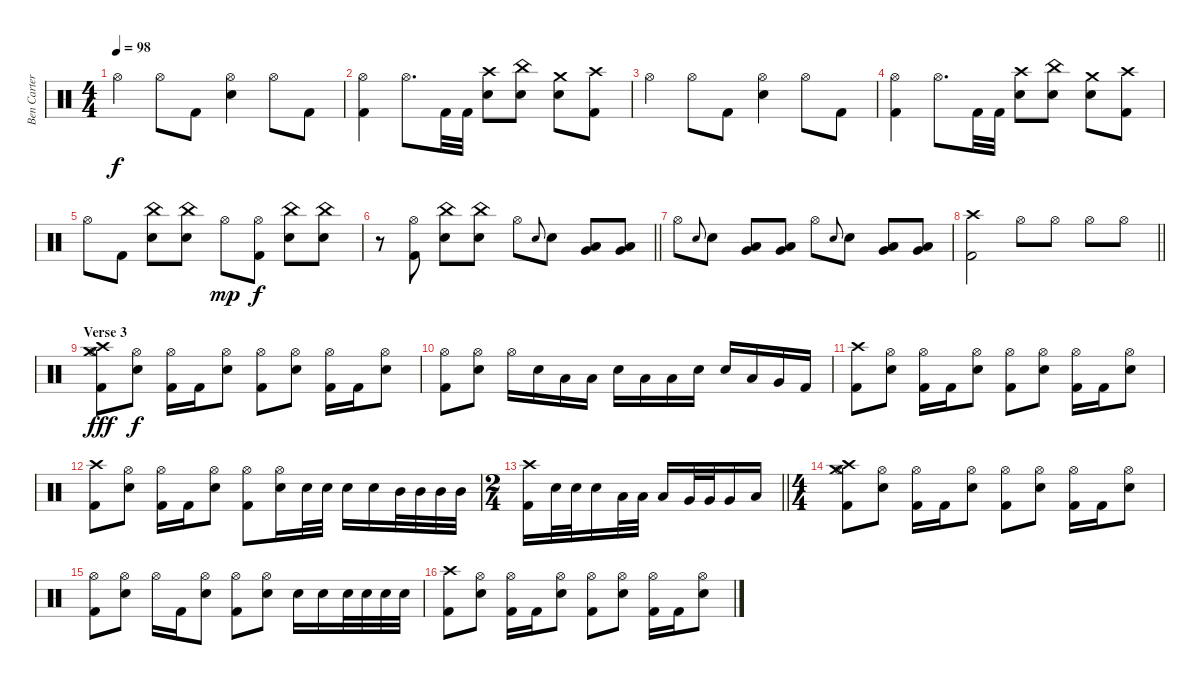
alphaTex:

\track ("Ben Carter" "Ben Carter") {instrument percussion}
\staff {score}
\articulation defaults
\ts (4 4)
\tempo 98
\clef neutral
\ks c "Hi-Hat (open)".4{dy f} "Hi-Hat (open)".8 "Kick (hit) 2".8
("Hi-Hat (open)" "Snare (hit) 2").4 "Hi-Hat (open)".8 "Kick (hit) 2".8 |
("Hi-Hat (open)" "Kick (hit) 2").4 "Hi-Hat (open)".8{d} "Kick (hit) 2".32 "Kick (hit) 2".32 ("Crash high (hit)" "Snare (hit) 2").8 ("China (hit)" "Snare (hit) 2").8 ("Crash medium (hit)" "Snare (hit) 2").8 ("Crash high (hit)" "Kick (hit) 2").8 |
"Hi-Hat (open)".4 "Hi-Hat (open)".8 "Kick (hit) 2".8 ("Hi-Hat (open)" "Snare (hit) 2").4 "Hi-Hat (open)".8 "Kick (hit) 2".8 |
("Hi-Hat (open)" "Kick (hit) 2").4 "Hi-Hat (open)".8{d} "Kick (hit) 2".32 "Kick (hit) 2".32 ("Crash high (hit)" "Snare (hit) 2").8 ("China (hit)" "Snare (hit) 2").8 ("Crash medium (hit)" "Snare (hit) 2").8 ("Crash high (hit)" "Kick (hit) 2").8 |
"Hi-Hat (open)".8 "Kick (hit) 2".8 ("China (hit)" "Snare (hit) 2").8 ("China (hit)" "Snare (hit) 2").8 "Hi-Hat (open)".8{dy mp} ("Hi-Hat (open)" "Kick (hit) 2").8{dy f} ("China (hit)" "Snare (hit) 2").8 ("China (hit)" "Snare (hit) 2").8 |
\barLineRight lightlight
r.8 ("Hi-Hat (open)" "Kick (hit) 2").8 ("China (hit)" "Snare (hit) 2").8 ("China (hit)" "Snare (hit) 2").8 "Hi-Hat (open)".8 "Snare (hit) 2".8{gr onbeat} "Snare (hit) 2".8 ("Low Tom (hit)" "Very Low Tom (hit)").8 ("Very Low Tom (hit)" "Low Floor Tom (hit)").8 |
"Hi-Hat (open)".8 "Snare (hit) 2".8{gr onbeat} "Snare (hit) 2".8 ("Low Tom (hit)" "Very Low Tom (hit)").8 ("Very Low Tom (hit)" "Low Floor Tom (hit)").8 "Hi-Hat (open)".8 "Snare (hit) 2".8{gr onbeat} "Snare (hit) 2".8 ("Low Tom (hit)" "Very Low Tom (hit)").8 ("Very Low Tom (hit)" "Low Floor Tom (hit)").8 |
\barLineRight lightlight
("Crash high (hit)" "Kick (hit) 2").2 "Hi-Hat (open)".8 "Hi-Hat (open)".8 "Hi-Hat (open)".8 "Hi-Hat (open)".8 |
\section ("" "Verse 3")
("Crash medium (hit)" "Crash high (hit)" "Hi-Hat (open)" "Kick (hit) 2").8{dy fff} ("Hi-Hat (open)" "Snare (hit) 2").8{dy f} ("Hi-Hat (open)" "Kick (hit) 2").16 "Kick (hit) 2".16 ("Hi-Hat (open)" "Snare (hit) 2").8 ("Hi-Hat (open)" "Kick (hit) 2").8 ("Hi-Hat (open)" "Snare (hit) 2").8 ("Hi-Hat (open)" "Kick (hit) 2").16 "Kick (hit) 2".16 ("Hi-Hat (open)" "Snare (hit) 2").8 |
("Hi-Hat (open)" "Kick (hit) 2").8 ("Hi-Hat (open)" "Snare (hit) 2").8 "Hi-Hat (open)".16 "Snare (hit) 2".16 "Low Tom (hit)".16 "Low Tom (hit)".16 "Snare (hit) 2".16 "Low Tom (hit)".16 "Low Tom (hit)".16 "Snare (hit) 2".16 "Snare (hit) 2".16 "Low Tom (hit)".16 "Very Low Tom (hit)".16 "Kick (hit) 2".16 |
("Crash high (hit)" "Kick (hit) 2").8 ("Hi-Hat (open)" "Snare (hit) 2").8 ("Hi-Hat (open)" "Kick (hit) 2").16 "Kick (hit) 2".16 ("Hi-Hat (open)" "Snare (hit) 2").8 ("Hi-Hat (open)" "Kick (hit) 2").8 ("Hi-Hat (open)" "Snare (hit) 2").8 ("Hi-Hat (open)" "Kick (hit) 2").16 "Kick (hit) 2".16 ("Hi-Hat (open)" "Snare (hit) 2").8 |
("Crash high (hit)" "Kick (hit) 2").8 ("Hi-Hat (open)" "Snare (hit) 2").8 ("Hi-Hat (open)" "Kick (hit) 2").16 "Kick (hit) 2".16 ("Hi-Hat (open)" "Snare (hit) 2").8 ("Hi-Hat (open)" "Kick (hit) 2").8 ("Hi-Hat (open)" "Snare (hit) 2").16 "Snare (hit) 2".32 "Snare (hit) 2".32 "Snare (hit) 2".16 "Snare (hit) 2".16 "Mid Tom (hit)".32 "Mid Tom (hit)".32 "Mid Tom (hit)".32 "Mid Tom (hit)".32 |
\ts (2 4)
\barLineRight lightlight
("Crash high (hit)" "Kick (hit) 2").16 "Snare (hit) 2".32 "Snare (hit) 2".32 "Snare (hit) 2".16 "Low Tom (hit)".32 "Low Tom (hit)".32 "Low Tom (hit)".16 "Very Low Tom (hit)".32 "Very Low Tom (hit)".32 "Very Low Tom (hit)".16 "Low Floor Tom (hit)".16 |
\ts (4 4)
("Crash medium (hit)" "Crash high (hit)" "Hi-Hat (open)" "Kick (hit) 2").8 ("Hi-Hat (open)" "Snare (hit) 2").8 ("Hi-Hat (open)" "Kick (hit) 2").16 "Kick (hit) 2".16 ("Hi-Hat (open)" "Snare (hit) 2").8 ("Hi-Hat (open)" "Kick (hit) 2").8 ("Hi-Hat (open)" "Snare (hit) 2").8 ("Hi-Hat (open)" "Kick (hit) 2").16 "Kick (hit) 2".16 ("Hi-Hat (open)" "Snare (hit) 2").8 |
("Hi-Hat (open)" "Kick (hit) 2").8 ("Hi-Hat (open)" "Snare (hit) 2").8 "Hi-Hat (open)".16 "Kick (hit) 2".16 ("Hi-Hat (open)" "Snare (hit) 2").8 ("Hi-Hat (open)" "Kick (hit) 2").8 ("Hi-Hat (open)" "Snare (hit) 2").8 "Snare (hit) 2".16 "Snare (hit) 2".16 "Snare (hit) 2".32 "Snare (hit) 2".32 "Snare (hit) 2".32 "Snare (hit) 2".32 |
("Crash high (hit)" "Kick (hit) 2").8 ("Hi-Hat (open)" "Snare (hit) 2").8 ("Hi-Hat (open)" "Kick (hit) 2").16 "Kick (hit) 2".16 ("Hi-Hat (open)" "Snare (hit) 2").8 ("Hi-Hat (open)" "Kick (hit) 2").8 ("Hi-Hat (open)" "Snare (hit) 2").8 ("Hi-Hat (open)" "Kick (hit) 2").16 "Kick (hit) 2".16 ("Hi-Hat (open)" "Snare (hit) 2").8
